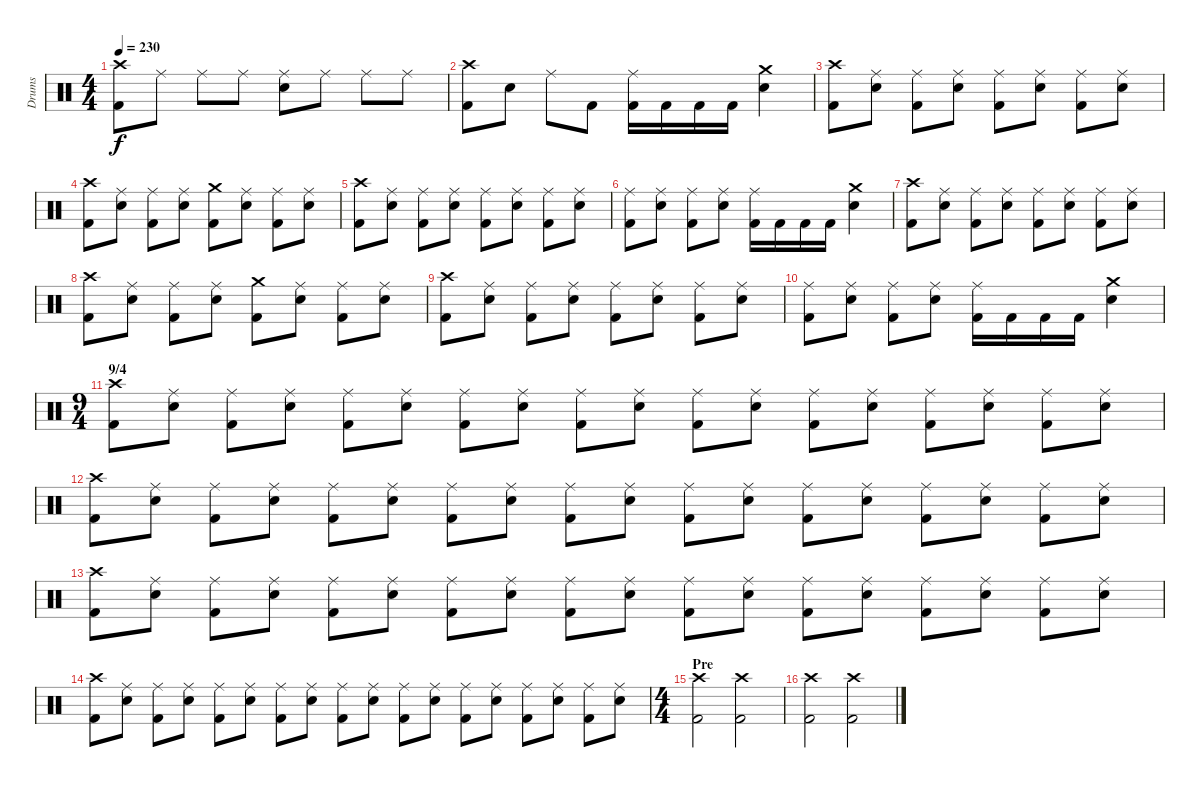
\track ("Drums" "Drums") {instrument percussion}
\staff {score}
\articulation defaults
\ts (4 4)
\tempo 230
\clef neutral
\ks c
("Crash high (hit)" "Kick (hit) 2").8{dy f} "Ride (middle)".8 "Ride (middle)".8 "Ride (middle)".8 ("Ride (middle)" "Snare (hit) 2").8 "Ride (middle)".8 "Ride (middle)".8 "Ride (middle)".8 |
("Crash high (hit)" "Kick (hit) 2").8 "Snare (hit) 2".8 "Ride (middle)".8 "Kick (hit) 2".8 ("Ride (middle)" "Kick (hit) 2").16 "Kick (hit) 2".16 "Kick (hit) 2".16 "Kick (hit) 2".16 ("Crash medium (hit)" "Snare (hit) 2").4 |
\section ("" "")
("Crash high (hit)" "Kick (hit) 2").8 ("Ride (middle)" "Snare (hit) 2").8 ("Ride (middle)" "Kick (hit) 2").8 ("Ride (middle)" "Snare (hit) 2").8 ("Ride (middle)" "Kick (hit) 2").8 ("Ride (middle)" "Snare (hit) 2").8 ("Ride (middle)" "Kick (hit) 2").8 ("Ride (middle)" "Snare (hit) 2").8 |
("Crash high (hit)" "Kick (hit) 2").8 ("Ride (middle)" "Snare (hit) 2").8 ("Ride (middle)" "Kick (hit) 2").8 ("Ride (middle)" "Snare (hit) 2").8 ("Crash medium (hit)" "Kick (hit) 2").8 ("Ride (middle)" "Snare (hit) 2").8 ("Ride (middle)" "Kick (hit) 2").8 ("Ride (middle)" "Snare (hit) 2").8 |
("Crash high (hit)" "Kick (hit) 2").8 ("Ride (middle)" "Snare (hit) 2").8 ("Ride (middle)" "Kick (hit) 2").8 ("Ride (middle)" "Snare (hit) 2").8 ("Ride (middle)" "Kick (hit) 2").8 ("Ride (middle)" "Snare (hit) 2").8 ("Ride (middle)" "Kick (hit) 2").8 ("Ride (middle)" "Snare (hit) 2").8 |
("Ride (middle)" "Kick (hit) 2").8 ("Ride (middle)" "Snare (hit) 2").8 ("Ride (middle)" "Kick (hit) 2").8 ("Ride (middle)" "Snare (hit) 2").8 ("Ride (middle)" "Kick (hit) 2").16 "Kick (hit) 2".16 "Kick (hit) 2".16 "Kick (hit) 2".16 ("Crash medium (hit)" "Snare (hit) 2").4 |
("Crash high (hit)" "Kick (hit) 2").8 ("Ride (middle)" "Snare (hit) 2").8 ("Ride (middle)" "Kick (hit) 2").8 ("Ride (middle)" "Snare (hit) 2").8 ("Ride (middle)" "Kick (hit) 2").8 ("Ride (middle)" "Snare (hit) 2").8 ("Ride (middle)" "Kick (hit) 2").8 ("Ride (middle)" "Snare (hit) 2").8 |
("Crash high (hit)" "Kick (hit) 2").8 ("Ride (middle)" "Snare (hit) 2").8 ("Ride (middle)" "Kick (hit) 2").8 ("Ride (middle)" "Snare (hit) 2").8 ("Crash medium (hit)" "Kick (hit) 2").8 ("Ride (middle)" "Snare (hit) 2").8 ("Ride (middle)" "Kick (hit) 2").8 ("Ride (middle)" "Snare (hit) 2").8 |
("Crash high (hit)" "Kick (hit) 2").8 ("Ride (middle)" "Snare (hit) 2").8 ("Ride (middle)" "Kick (hit) 2").8 ("Ride (middle)" "Snare (hit) 2").8 ("Ride (middle)" "Kick (hit) 2").8 ("Ride (middle)" "Snare (hit) 2").8 ("Ride (middle)" "Kick (hit) 2").8 ("Ride (middle)" "Snare (hit) 2").8 |
("Ride (middle)" "Kick (hit) 2").8 ("Ride (middle)" "Snare (hit) 2").8 ("Ride (middle)" "Kick (hit) 2").8 ("Ride (middle)" "Snare (hit) 2").8 ("Ride (middle)" "Kick (hit) 2").16 "Kick (hit) 2".16 "Kick (hit) 2".16 "Kick (hit) 2".16 ("Crash medium (hit)" "Snare (hit) 2").4 |
\ts (9 4)
\section ("" "9/4")
("Crash high (hit)" "Kick (hit) 2").8 ("Ride (middle)" "Snare (hit) 2").8 ("Ride (middle)" "Kick (hit) 2").8 ("Ride (middle)" "Snare (hit) 2").8 ("Ride (middle)" "Kick (hit) 2").8 ("Ride (middle)" "Snare (hit) 2").8 ("Ride (middle)" "Kick (hit) 2").8 ("Ride (middle)" "Snare (hit) 2").8 ("Ride (middle)" "Kick (hit) 2").8 ("Ride (middle)" "Snare (hit) 2").8 ("Ride (middle)" "Kick (hit) 2").8 ("Ride (middle)" "Snare (hit) 2").8 ("Ride (middle)" "Kick (hit) 2").8 ("Ride (middle)" "Snare (hit) 2").8 ("Ride (middle)" "Kick (hit) 2").8 ("Ride (middle)" "Snare (hit) 2").8 ("Ride (middle)" "Kick (hit) 2").8 ("Ride (middle)" "Snare (hit) 2").8 |
("Crash high (hit)" "Kick (hit) 2").8 ("Ride (middle)" "Snare (hit) 2").8 ("Ride (middle)" "Kick (hit) 2").8 ("Ride (middle)" "Snare (hit) 2").8 ("Ride (middle)" "Kick (hit) 2").8 ("Ride (middle)" "Snare (hit) 2").8 ("Ride (middle)" "Kick (hit) 2").8 ("Ride (middle)" "Snare (hit) 2").8 ("Ride (middle)" "Kick (hit) 2").8 ("Ride (middle)" "Snare (hit) 2").8 ("Ride (middle)" "Kick (hit) 2").8 ("Ride (middle)" "Snare (hit) 2").8 ("Ride (middle)" "Kick (hit) 2").8 ("Ride (middle)" "Snare (hit) 2").8 ("Ride (middle)" "Kick (hit) 2").8 ("Ride (middle)" "Snare (hit) 2").8 ("Ride (middle)" "Kick (hit) 2").8 ("Ride (middle)" "Snare (hit) 2").8 |
("Crash high (hit)" "Kick (hit) 2").8 ("Ride (middle)" "Snare (hit) 2").8 ("Ride (middle)" "Kick (hit) 2").8 ("Ride (middle)" "Snare (hit) 2").8 ("Ride (middle)" "Kick (hit) 2").8 ("Ride (middle)" "Snare (hit) 2").8 ("Ride (middle)" "Kick (hit) 2").8 ("Ride (middle)" "Snare (hit) 2").8 ("Ride (middle)" "Kick (hit) 2").8 ("Ride (middle)" "Snare (hit) 2").8 ("Ride (middle)" "Kick (hit) 2").8 ("Ride (middle)" "Snare (hit) 2").8 ("Ride (middle)" "Kick (hit) 2").8 ("Ride (middle)" "Snare (hit) 2").8 ("Ride (middle)" "Kick (hit) 2").8 ("Ride (middle)" "Snare (hit) 2").8 ("Ride (middle)" "Kick (hit) 2").8 ("Ride (middle)" "Snare (hit) 2").8 |
("Crash high (hit)" "Kick (hit) 2").8 ("Ride (middle)" "Snare (hit) 2").8 ("Ride (middle)" "Kick (hit) 2").8 ("Ride (middle)" "Snare (hit) 2").8 ("Ride (middle)" "Kick (hit) 2").8 ("Ride (middle)" "Snare (hit) 2").8 ("Ride (middle)" "Kick (hit) 2").8 ("Ride (middle)" "Snare (hit) 2").8 ("Ride (middle)" "Kick (hit) 2").8 ("Ride (middle)" "Snare (hit) 2").8 ("Ride (middle)" "Kick (hit) 2").8 ("Ride (middle)" "Snare (hit) 2").8 ("Ride (middle)" "Kick (hit) 2").8 ("Ride (middle)" "Snare (hit) 2").8 ("Ride (middle)" "Kick (hit) 2").8 ("Ride (middle)" "Snare (hit) 2").8 ("Ride (middle)" "Kick (hit) 2").8 ("Ride (middle)" "Snare (hit) 2").8 |
\ts (4 4)
\section ("" "Pre")
("Crash high (hit)" "Kick (hit) 2").2 ("Crash high (hit)" "Kick (hit) 2").2 |
("Crash high (hit)" "Kick (hit) 2").2 ("Crash high (hit)" "Kick (hit) 2").2
